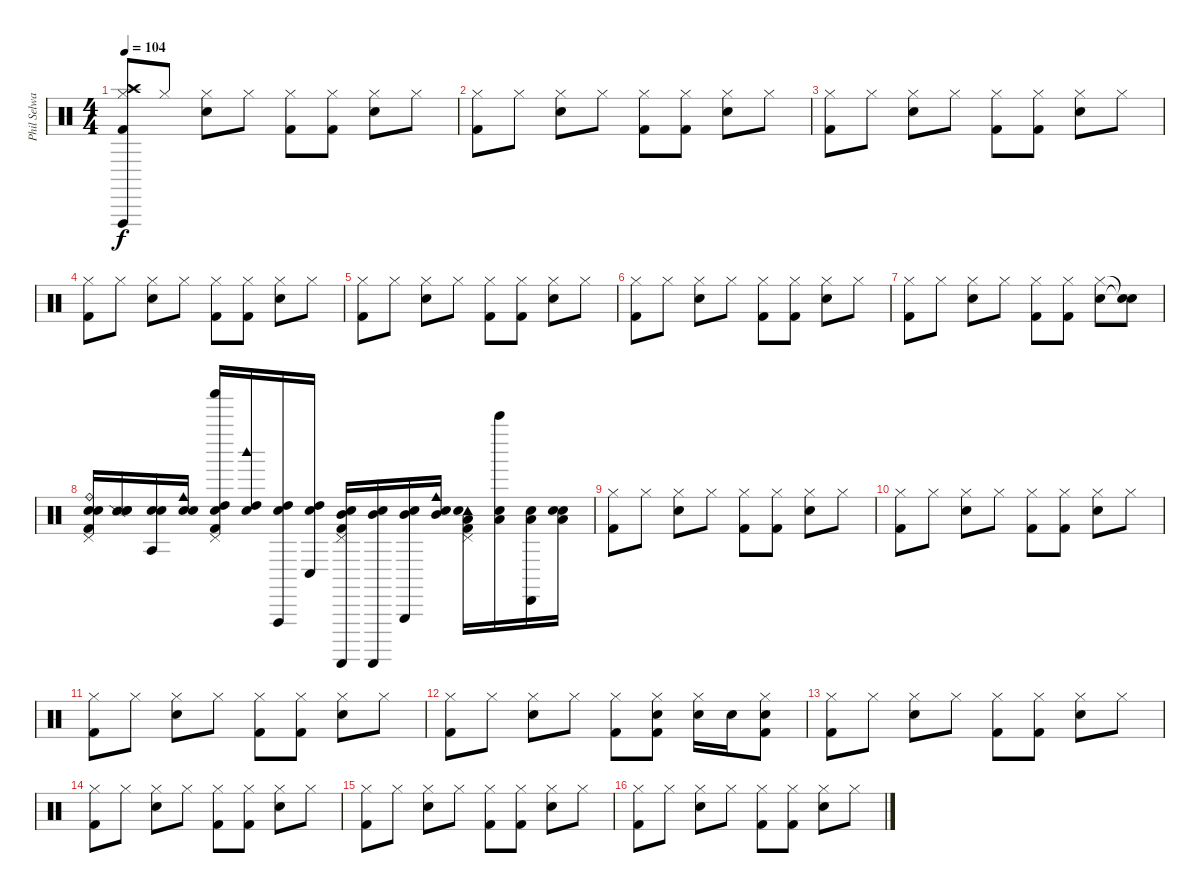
\track ("Phil Selway" "Phil Selwa") {instrument percussion}
\staff {score}
\articulation defaults
\ts (4 4)
\tempo 104
\clef neutral
\ks c
("Kick (hit) 2" "Crash high (hit)" "Splash (hit)" "Hi-Hat (closed)" "Vibraslap (hit)").8{dy f} "Hi-Hat (closed)".8 ("Electric Snare (hit)" "Hi-Hat (closed)").8 "Hi-Hat (closed)".8 ("Kick (hit) 2" "Hi-Hat (closed)").8 ("Kick (hit) 2" "Hi-Hat (closed)").8 ("Electric Snare (hit)" "Hi-Hat (closed)").8 "Hi-Hat (closed)".8 |
("Kick (hit) 2" "Hi-Hat (closed)").8 "Hi-Hat (closed)".8 ("Electric Snare (hit)" "Hi-Hat (closed)").8 "Hi-Hat (closed)".8 ("Kick (hit) 2" "Hi-Hat (closed)").8 ("Kick (hit) 2" "Hi-Hat (closed)").8 ("Electric Snare (hit)" "Hi-Hat (closed)").8 "Hi-Hat (closed)".8 |
("Kick (hit) 2" "Hi-Hat (closed)").8 "Hi-Hat (closed)".8 ("Electric Snare (hit)" "Hi-Hat (closed)").8 "Hi-Hat (closed)".8 ("Kick (hit) 2" "Hi-Hat (closed)").8 ("Kick (hit) 2" "Hi-Hat (closed)").8 ("Electric Snare (hit)" "Hi-Hat (closed)").8 "Hi-Hat (closed)".8 |
("Kick (hit) 2" "Hi-Hat (closed)").8 "Hi-Hat (closed)".8 ("Electric Snare (hit)" "Hi-Hat (closed)").8 "Hi-Hat (closed)".8 ("Kick (hit) 2" "Hi-Hat (closed)").8 ("Kick (hit) 2" "Hi-Hat (closed)").8 ("Electric Snare (hit)" "Hi-Hat (closed)").8 "Hi-Hat (closed)".8 |
("Kick (hit) 2" "Hi-Hat (closed)").8 "Hi-Hat (closed)".8 ("Electric Snare (hit)" "Hi-Hat (closed)").8 "Hi-Hat (closed)".8 ("Kick (hit) 2" "Hi-Hat (closed)").8 ("Kick (hit) 2" "Hi-Hat (closed)").8 ("Electric Snare (hit)" "Hi-Hat (closed)").8 "Hi-Hat (closed)".8 |
("Kick (hit) 2" "Hi-Hat (closed)").8 "Hi-Hat (closed)".8 ("Electric Snare (hit)" "Hi-Hat (closed)").8 "Hi-Hat (closed)".8 ("Kick (hit) 2" "Hi-Hat (closed)").8 ("Kick (hit) 2" "Hi-Hat (closed)").8 ("Electric Snare (hit)" "Hi-Hat (closed)").8 "Hi-Hat (closed)".8 |
("Kick (hit) 2" "Hi-Hat (closed)").8 "Hi-Hat (closed)".8 ("Electric Snare (hit)" "Hi-Hat (closed)").8 "Hi-Hat (closed)".8 ("Kick (hit) 2" "Hi-Hat (closed)").8 ("Kick (hit) 2" "Hi-Hat (closed)").8 ("Electric Snare (hit)" "Hi-Hat (closed)").8 ("Snare (hit)"{t} "Snare (hit)"{t}).8 |
("Ride (bell)" "Snare (hit) 2" "Electric Snare (hit)" "Pedal Hi-Hat (hit)" "Kick (hit) 2").16 ("Snare (side stick) 2" "Snare (hit) 2" "Electric Snare (hit)").16 ("Agogo tow (hit)" "Snare (hit) 2" "Electric Snare (hit)").16 ("Cowbell medium (hit)" "Snare (hit) 2" "Electric Snare (hit)").16 ("Shaker (hit)" "High Tom (hit)" "Electric Snare (hit)" "Pedal Hi-Hat (hit)" "Kick (hit) 2").16 ("Woodblock high (hit)" "High Tom (hit)" "Electric Snare (hit)").16 ("Vibraslap (hit)" "High Tom (hit)" "Electric Snare (hit)").16 ("Conga low (hit)" "High Tom (hit)" "Electric Snare (hit)").16 ("Guiro (scrap-return)" "Mid Tom (hit)" "Electric Snare (hit)" "Pedal Hi-Hat (hit)" "Kick (hit) 2").16 ("Guiro (scrap-return)" "Mid Tom (hit)" "Electric Snare (hit)").16 ("Triangle (hit)" "Mid Tom (hit)" "Electric Snare (hit)").16 ("Cowbell medium (hit)" "Mid Tom (hit)" "Electric Snare (hit)").16 ("Tambourine (hit)" "Low Floor Tom (hit)" "Electric Snare (hit)" "Pedal Hi-Hat (hit)" "Kick (hit) 2").16 ("Bell Tree (hit)" "Low Floor Tom (hit)" "Electric Snare (hit)").16 ("Cabasa (hit)" "Low Floor Tom (hit)" "Electric Snare (hit)").16 ("Metronome (bell)" "Low Floor Tom (hit)" "Electric Snare (hit)").16 |
("Kick (hit) 2" "Hi-Hat (closed)").8 "Hi-Hat (closed)".8 ("Electric Snare (hit)" "Hi-Hat (closed)").8 "Hi-Hat (closed)".8 ("Kick (hit) 2" "Hi-Hat (closed)").8 ("Kick (hit) 2" "Hi-Hat (closed)").8 ("Electric Snare (hit)" "Hi-Hat (closed)").8 "Hi-Hat (closed)".8 |
("Kick (hit) 2" "Hi-Hat (closed)").8 "Hi-Hat (closed)".8 ("Electric Snare (hit)" "Hi-Hat (closed)").8 "Hi-Hat (closed)".8 ("Kick (hit) 2" "Hi-Hat (closed)").8 ("Kick (hit) 2" "Hi-Hat (closed)").8 ("Electric Snare (hit)" "Hi-Hat (closed)").8 "Hi-Hat (closed)".8 |
("Kick (hit) 2" "Hi-Hat (closed)").8 "Hi-Hat (closed)".8 ("Electric Snare (hit)" "Hi-Hat (closed)").8 "Hi-Hat (closed)".8 ("Kick (hit) 2" "Hi-Hat (closed)").8 ("Kick (hit) 2" "Hi-Hat (closed)").8 ("Electric Snare (hit)" "Hi-Hat (closed)").8 "Hi-Hat (closed)".8 |
("Kick (hit) 2" "Hi-Hat (closed)").8 "Hi-Hat (closed)".8 ("Electric Snare (hit)" "Hi-Hat (closed)").8 "Hi-Hat (closed)".8 ("Kick (hit) 2" "Hi-Hat (closed)").8 ("Kick (hit) 2" "Electric Snare (hit)" "Hi-Hat (closed)").8 ("Electric Snare (hit)" "Hi-Hat (closed)").16 "Electric Snare (hit)".16 ("Kick (hit) 2" "Electric Snare (hit)" "Hi-Hat (closed)").8 |
("Kick (hit) 2" "Hi-Hat (closed)").8 "Hi-Hat (closed)".8 ("Electric Snare (hit)" "Hi-Hat (closed)").8 "Hi-Hat (closed)".8 ("Kick (hit) 2" "Hi-Hat (closed)").8 ("Kick (hit) 2" "Hi-Hat (closed)").8 ("Electric Snare (hit)" "Hi-Hat (closed)").8 "Hi-Hat (closed)".8 |
("Kick (hit) 2" "Hi-Hat (closed)").8 "Hi-Hat (closed)".8 ("Electric Snare (hit)" "Hi-Hat (closed)").8 "Hi-Hat (closed)".8 ("Kick (hit) 2" "Hi-Hat (closed)").8 ("Kick (hit) 2" "Hi-Hat (closed)").8 ("Electric Snare (hit)" "Hi-Hat (closed)").8 "Hi-Hat (closed)".8 |
("Kick (hit) 2" "Hi-Hat (closed)").8 "Hi-Hat (closed)".8 ("Electric Snare (hit)" "Hi-Hat (closed)").8 "Hi-Hat (closed)".8 ("Kick (hit) 2" "Hi-Hat (closed)").8 ("Kick (hit) 2" "Hi-Hat (closed)").8 ("Electric Snare (hit)" "Hi-Hat (closed)").8 "Hi-Hat (closed)".8 |
("Kick (hit) 2" "Hi-Hat (closed)").8 "Hi-Hat (closed)".8 ("Electric Snare (hit)" "Hi-Hat (closed)").8 "Hi-Hat (closed)".8 ("Kick (hit) 2" "Hi-Hat (closed)").8 ("Kick (hit) 2" "Hi-Hat (closed)").8 ("Electric Snare (hit)" "Hi-Hat (closed)").8 "Hi-Hat (closed)".8
